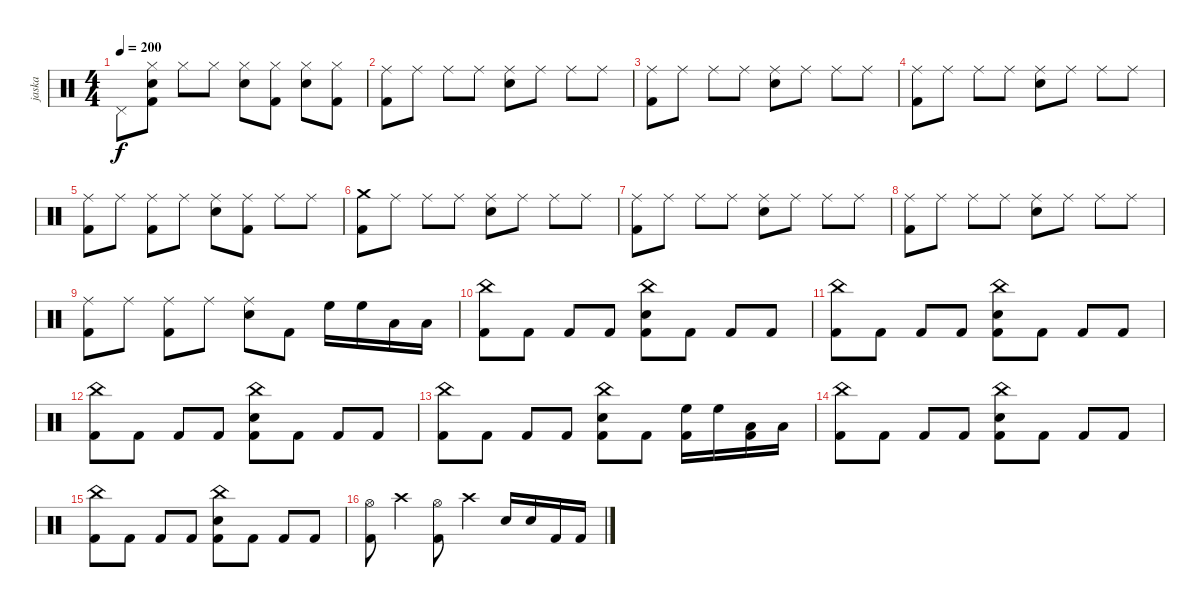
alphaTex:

\track ("jaska" "jaska") {instrument percussion}
\staff {score}
\articulation defaults
\ts (4 4)
\tempo 200
\clef neutral
\ks c "Pedal Hi-Hat (hit)".8{dy f}
("Hi-Hat (closed)" "Electric Snare (hit)" "Kick (hit) 2").8 "Hi-Hat (closed)".8 "Hi-Hat (closed)".8 ("Hi-Hat (closed)" "Electric Snare (hit)").8 ("Hi-Hat (closed)" "Kick (hit) 2").8 ("Hi-Hat (closed)" "Electric Snare (hit)").8 ("Hi-Hat (closed)" "Kick (hit) 2").8 |
("Ride (middle)" "Kick (hit) 2").8 "Ride (middle)".8 "Ride (middle)".8 "Ride (middle)".8 ("Ride (middle)" "Electric Snare (hit)").8 "Ride (middle)".8 "Ride (middle)".8 "Ride (middle)".8 |
("Ride (middle)" "Kick (hit) 2").8 "Ride (middle)".8 "Ride (middle)".8 "Ride (middle)".8 ("Ride (middle)" "Electric Snare (hit)").8 "Ride (middle)".8 "Ride (middle)".8 "Ride (middle)".8 |
("Ride (middle)" "Kick (hit) 2").8 "Ride (middle)".8 "Ride (middle)".8 "Ride (middle)".8 ("Ride (middle)" "Electric Snare (hit)").8 "Ride (middle)".8 "Ride (middle)".8 "Ride (middle)".8 |
("Ride (middle)" "Kick (hit) 2").8 "Ride (middle)".8 ("Ride (middle)" "Kick (hit) 2").8 "Ride (middle)".8 ("Ride (middle)" "Electric Snare (hit)").8 ("Ride (middle)" "Kick (hit) 2").8 "Ride (middle)".8 "Ride (middle)".8 |
("Crash medium (hit)" "Kick (hit) 2").8 "Ride (middle)".8 "Ride (middle)".8 "Ride (middle)".8 ("Ride (middle)" "Electric Snare (hit)").8 "Ride (middle)".8 "Ride (middle)".8 "Ride (middle)".8 |
("Ride (middle)" "Kick (hit) 2").8 "Ride (middle)".8 "Ride (middle)".8 "Ride (middle)".8 ("Ride (middle)" "Electric Snare (hit)").8 "Ride (middle)".8 "Ride (middle)".8 "Ride (middle)".8 |
("Ride (middle)" "Kick (hit) 2").8 "Ride (middle)".8 "Ride (middle)".8 "Ride (middle)".8 ("Ride (middle)" "Electric Snare (hit)").8 "Ride (middle)".8 "Ride (middle)".8 "Ride (middle)".8 |
("Ride (middle)" "Kick (hit) 2").8 "Ride (middle)".8 ("Ride (middle)" "Kick (hit) 2").8 "Ride (middle)".8 ("Ride (middle)" "Electric Snare (hit)").8 "Kick (hit) 2".8 "High Floor Tom (hit)".16 "High Floor Tom (hit)".16 "Low Tom (hit)".16 "Low Tom (hit)".16 |
("China (hit)" "Kick (hit) 2").8 "Kick (hit) 2".8 "Kick (hit) 2".8 "Kick (hit) 2".8 ("China (hit)" "Electric Snare (hit)" "Kick (hit) 2").8 "Kick (hit) 2".8 "Kick (hit) 2".8 "Kick (hit) 2".8 |
("China (hit)" "Kick (hit) 2").8 "Kick (hit) 2".8 "Kick (hit) 2".8 "Kick (hit) 2".8 ("China (hit)" "Electric Snare (hit)" "Kick (hit) 2").8 "Kick (hit) 2".8 "Kick (hit) 2".8 "Kick (hit) 2".8 |
("China (hit)" "Kick (hit) 2").8 "Kick (hit) 2".8 "Kick (hit) 2".8 "Kick (hit) 2".8 ("China (hit)" "Electric Snare (hit)" "Kick (hit) 2").8 "Kick (hit) 2".8 "Kick (hit) 2".8 "Kick (hit) 2".8 |
("China (hit)" "Kick (hit) 2").8 "Kick (hit) 2".8 "Kick (hit) 2".8 "Kick (hit) 2".8 ("China (hit)" "Electric Snare (hit)" "Kick (hit) 2").8 "Kick (hit) 2".8 ("High Floor Tom (hit)" "Kick (hit) 2").16 "High Floor Tom (hit)".16 ("Low Tom (hit)" "Kick (hit) 2").16 "Low Tom (hit)".16 |
("China (hit)" "Kick (hit) 2").8 "Kick (hit) 2".8 "Kick (hit) 2".8 "Kick (hit) 2".8 ("China (hit)" "Electric Snare (hit)" "Kick (hit) 2").8 "Kick (hit) 2".8 "Kick (hit) 2".8 "Kick (hit) 2".8 |
("China (hit)" "Kick (hit) 2").8 "Kick (hit) 2".8 "Kick (hit) 2".8 "Kick (hit) 2".8 ("China (hit)" "Electric Snare (hit)" "Kick (hit) 2").8 "Kick (hit) 2".8 "Kick (hit) 2".8 "Kick (hit) 2".8 |
("Hi-Hat (open)" "Kick (hit) 2").8 "Crash high (hit)".4 ("Hi-Hat (open)" "Kick (hit) 2").8 "Crash high (hit)".4 "Electric Snare (hit)".16 "Electric Snare (hit)".16 "Kick (hit) 2".16 "Kick (hit) 2".16
